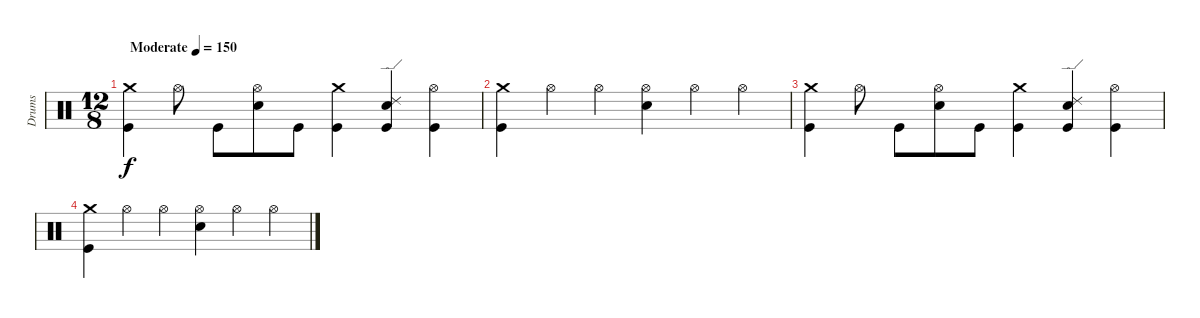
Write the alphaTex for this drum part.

\track ("Drums" "Drums") {instrument percussion}
\staff {score}
\articulation defaults
\ts (12 8)
\tempo (150 "Moderate")
\clef neutral
\ks c
("Crash medium (hit)" "Kick (hit)").4{dy f} "Hi-Hat (open)".8 "Kick (hit)".8 ("Hi-Hat (open)" "Snare (hit) 2").8 "Kick (hit)".8 ("Crash medium (hit)" "Kick (hit)").4 ("Ride (edge) 2" "Snare (hit) 2" "Kick (hit)").4 ("Hi-Hat (open)" "Kick (hit)").4 |
("Crash medium (hit)" "Kick (hit)").4 "Hi-Hat (open)".4 "Hi-Hat (open)".4 ("Hi-Hat (open)" "Snare (hit) 2").4 "Hi-Hat (open)".4 "Hi-Hat (open)".4 |
("Crash medium (hit)" "Kick (hit)").4 "Hi-Hat (open)".8 "Kick (hit)".8 ("Hi-Hat (open)" "Snare (hit) 2").8 "Kick (hit)".8 ("Crash medium (hit)" "Kick (hit)").4 ("Ride (edge) 2" "Snare (hit) 2" "Kick (hit)").4 ("Hi-Hat (open)" "Kick (hit)").4 |
("Crash medium (hit)" "Kick (hit)").4 "Hi-Hat (open)".4 "Hi-Hat (open)".4 ("Hi-Hat (open)" "Snare (hit) 2").4 "Hi-Hat (open)".4 "Hi-Hat (open)".4
